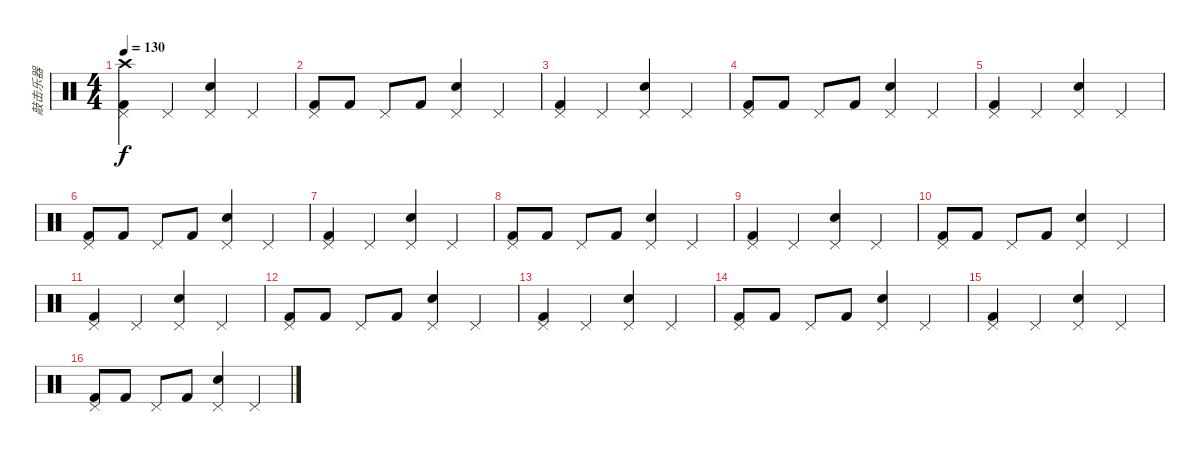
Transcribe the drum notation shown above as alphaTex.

\track ("敲击乐器" "敲击乐器") {instrument percussion}
\staff {score}
\articulation defaults
\ts (4 4)
\tempo 130
\clef neutral
\ks c
("Crash high (hit)" "Kick (hit) 2" "Pedal Hi-Hat (hit)").4{dy f} "Pedal Hi-Hat (hit)".4 ("Pedal Hi-Hat (hit)" "Electric Snare (hit)").4 "Pedal Hi-Hat (hit)".4 |
("Pedal Hi-Hat (hit)" "Kick (hit) 2").8 "Kick (hit) 2".8 "Pedal Hi-Hat (hit)".8 "Kick (hit) 2".8 ("Pedal Hi-Hat (hit)" "Electric Snare (hit)").4 "Pedal Hi-Hat (hit)".4 |
("Kick (hit) 2" "Pedal Hi-Hat (hit)").4 "Pedal Hi-Hat (hit)".4 ("Pedal Hi-Hat (hit)" "Electric Snare (hit)").4 "Pedal Hi-Hat (hit)".4 |
("Pedal Hi-Hat (hit)" "Kick (hit) 2").8 "Kick (hit) 2".8 "Pedal Hi-Hat (hit)".8 "Kick (hit) 2".8 ("Pedal Hi-Hat (hit)" "Electric Snare (hit)").4 "Pedal Hi-Hat (hit)".4 |
("Kick (hit) 2" "Pedal Hi-Hat (hit)").4 "Pedal Hi-Hat (hit)".4 ("Pedal Hi-Hat (hit)" "Electric Snare (hit)").4 "Pedal Hi-Hat (hit)".4 |
("Pedal Hi-Hat (hit)" "Kick (hit) 2").8 "Kick (hit) 2".8 "Pedal Hi-Hat (hit)".8 "Kick (hit) 2".8 ("Pedal Hi-Hat (hit)" "Electric Snare (hit)").4 "Pedal Hi-Hat (hit)".4 |
("Kick (hit) 2" "Pedal Hi-Hat (hit)").4 "Pedal Hi-Hat (hit)".4 ("Pedal Hi-Hat (hit)" "Electric Snare (hit)").4 "Pedal Hi-Hat (hit)".4 |
("Pedal Hi-Hat (hit)" "Kick (hit) 2").8 "Kick (hit) 2".8 "Pedal Hi-Hat (hit)".8 "Kick (hit) 2".8 ("Pedal Hi-Hat (hit)" "Electric Snare (hit)").4 "Pedal Hi-Hat (hit)".4 |
("Kick (hit) 2" "Pedal Hi-Hat (hit)").4 "Pedal Hi-Hat (hit)".4 ("Pedal Hi-Hat (hit)" "Electric Snare (hit)").4 "Pedal Hi-Hat (hit)".4 |
("Pedal Hi-Hat (hit)" "Kick (hit) 2").8 "Kick (hit) 2".8 "Pedal Hi-Hat (hit)".8 "Kick (hit) 2".8 ("Pedal Hi-Hat (hit)" "Electric Snare (hit)").4 "Pedal Hi-Hat (hit)".4 |
("Kick (hit) 2" "Pedal Hi-Hat (hit)").4 "Pedal Hi-Hat (hit)".4 ("Pedal Hi-Hat (hit)" "Electric Snare (hit)").4 "Pedal Hi-Hat (hit)".4 |
("Pedal Hi-Hat (hit)" "Kick (hit) 2").8 "Kick (hit) 2".8 "Pedal Hi-Hat (hit)".8 "Kick (hit) 2".8 ("Pedal Hi-Hat (hit)" "Electric Snare (hit)").4 "Pedal Hi-Hat (hit)".4 |
("Kick (hit) 2" "Pedal Hi-Hat (hit)").4 "Pedal Hi-Hat (hit)".4 ("Pedal Hi-Hat (hit)" "Electric Snare (hit)").4 "Pedal Hi-Hat (hit)".4 |
("Pedal Hi-Hat (hit)" "Kick (hit) 2").8 "Kick (hit) 2".8 "Pedal Hi-Hat (hit)".8 "Kick (hit) 2".8 ("Pedal Hi-Hat (hit)" "Electric Snare (hit)").4 "Pedal Hi-Hat (hit)".4 |
("Kick (hit) 2" "Pedal Hi-Hat (hit)").4 "Pedal Hi-Hat (hit)".4 ("Pedal Hi-Hat (hit)" "Electric Snare (hit)").4 "Pedal Hi-Hat (hit)".4 |
("Pedal Hi-Hat (hit)" "Kick (hit) 2").8 "Kick (hit) 2".8 "Pedal Hi-Hat (hit)".8 "Kick (hit) 2".8 ("Pedal Hi-Hat (hit)" "Electric Snare (hit)").4 "Pedal Hi-Hat (hit)".4
